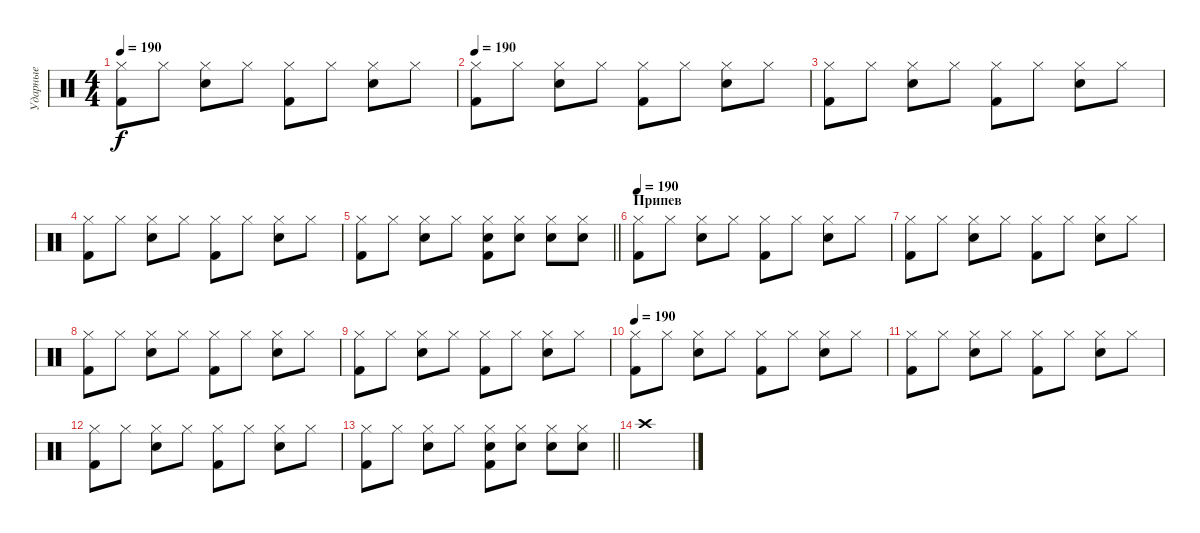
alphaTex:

\track ("Ударные" "Ударные") {instrument percussion}
\staff {score}
\articulation defaults
\ts (4 4)
\tempo 190
\clef neutral
\ks c
("Hi-Hat (closed)" "Kick (hit) 2").8{dy f} "Hi-Hat (closed)".8 ("Hi-Hat (closed)" "Snare (hit) 2").8 "Hi-Hat (closed)".8 ("Hi-Hat (closed)" "Kick (hit) 2").8 "Hi-Hat (closed)".8 ("Hi-Hat (closed)" "Snare (hit) 2").8 "Hi-Hat (closed)".8 |
\tempo 190
("Hi-Hat (closed)" "Kick (hit) 2").8 "Hi-Hat (closed)".8 ("Hi-Hat (closed)" "Snare (hit) 2").8 "Hi-Hat (closed)".8 ("Hi-Hat (closed)" "Kick (hit) 2").8 "Hi-Hat (closed)".8 ("Hi-Hat (closed)" "Snare (hit) 2").8 "Hi-Hat (closed)".8 |
("Hi-Hat (closed)" "Kick (hit) 2").8 "Hi-Hat (closed)".8 ("Hi-Hat (closed)" "Snare (hit) 2").8 "Hi-Hat (closed)".8 ("Hi-Hat (closed)" "Kick (hit) 2").8 "Hi-Hat (closed)".8 ("Hi-Hat (closed)" "Snare (hit) 2").8 "Hi-Hat (closed)".8 |
("Hi-Hat (closed)" "Kick (hit) 2").8 "Hi-Hat (closed)".8 ("Hi-Hat (closed)" "Snare (hit) 2").8 "Hi-Hat (closed)".8 ("Hi-Hat (closed)" "Kick (hit) 2").8 "Hi-Hat (closed)".8 ("Hi-Hat (closed)" "Snare (hit) 2").8 "Hi-Hat (closed)".8 |
\barLineRight lightlight
("Hi-Hat (closed)" "Kick (hit) 2").8 "Hi-Hat (closed)".8 ("Hi-Hat (closed)" "Snare (hit) 2").8 "Hi-Hat (closed)".8 ("Hi-Hat (closed)" "Snare (hit) 2" "Kick (hit) 2").8 ("Hi-Hat (closed)" "Snare (hit) 2").8 ("Hi-Hat (closed)" "Snare (hit) 2").8 ("Hi-Hat (closed)" "Snare (hit) 2").8 |
\section ("" "Припев")
\tempo 190
("Hi-Hat (closed)" "Kick (hit) 2").8 "Hi-Hat (closed)".8 ("Hi-Hat (closed)" "Snare (hit) 2").8 "Hi-Hat (closed)".8 ("Hi-Hat (closed)" "Kick (hit) 2").8 "Hi-Hat (closed)".8 ("Hi-Hat (closed)" "Snare (hit) 2").8 "Hi-Hat (closed)".8 |
("Hi-Hat (closed)" "Kick (hit) 2").8 "Hi-Hat (closed)".8 ("Hi-Hat (closed)" "Snare (hit) 2").8 "Hi-Hat (closed)".8 ("Hi-Hat (closed)" "Kick (hit) 2").8 "Hi-Hat (closed)".8 ("Hi-Hat (closed)" "Snare (hit) 2").8 "Hi-Hat (closed)".8 |
("Hi-Hat (closed)" "Kick (hit) 2").8 "Hi-Hat (closed)".8 ("Hi-Hat (closed)" "Snare (hit) 2").8 "Hi-Hat (closed)".8 ("Hi-Hat (closed)" "Kick (hit) 2").8 "Hi-Hat (closed)".8 ("Hi-Hat (closed)" "Snare (hit) 2").8 "Hi-Hat (closed)".8 |
("Hi-Hat (closed)" "Kick (hit) 2").8 "Hi-Hat (closed)".8 ("Hi-Hat (closed)" "Snare (hit) 2").8 "Hi-Hat (closed)".8 ("Hi-Hat (closed)" "Kick (hit) 2").8 "Hi-Hat (closed)".8 ("Hi-Hat (closed)" "Snare (hit) 2").8 "Hi-Hat (closed)".8 |
\tempo 190
("Hi-Hat (closed)" "Kick (hit) 2").8 "Hi-Hat (closed)".8 ("Hi-Hat (closed)" "Snare (hit) 2").8 "Hi-Hat (closed)".8 ("Hi-Hat (closed)" "Kick (hit) 2").8 "Hi-Hat (closed)".8 ("Hi-Hat (closed)" "Snare (hit) 2").8 "Hi-Hat (closed)".8 |
("Hi-Hat (closed)" "Kick (hit) 2").8 "Hi-Hat (closed)".8 ("Hi-Hat (closed)" "Snare (hit) 2").8 "Hi-Hat (closed)".8 ("Hi-Hat (closed)" "Kick (hit) 2").8 "Hi-Hat (closed)".8 ("Hi-Hat (closed)" "Snare (hit) 2").8 "Hi-Hat (closed)".8 |
("Hi-Hat (closed)" "Kick (hit) 2").8 "Hi-Hat (closed)".8 ("Hi-Hat (closed)" "Snare (hit) 2").8 "Hi-Hat (closed)".8 ("Hi-Hat (closed)" "Kick (hit) 2").8 "Hi-Hat (closed)".8 ("Hi-Hat (closed)" "Snare (hit) 2").8 "Hi-Hat (closed)".8 |
\barLineRight lightlight
("Hi-Hat (closed)" "Kick (hit) 2").8 "Hi-Hat (closed)".8 ("Hi-Hat (closed)" "Snare (hit) 2").8 "Hi-Hat (closed)".8 ("Hi-Hat (closed)" "Snare (hit) 2" "Kick (hit) 2").8 ("Hi-Hat (closed)" "Snare (hit) 2").8 ("Hi-Hat (closed)" "Snare (hit) 2").8 ("Hi-Hat (closed)" "Snare (hit) 2").8 |
"Crash high (hit)".1
